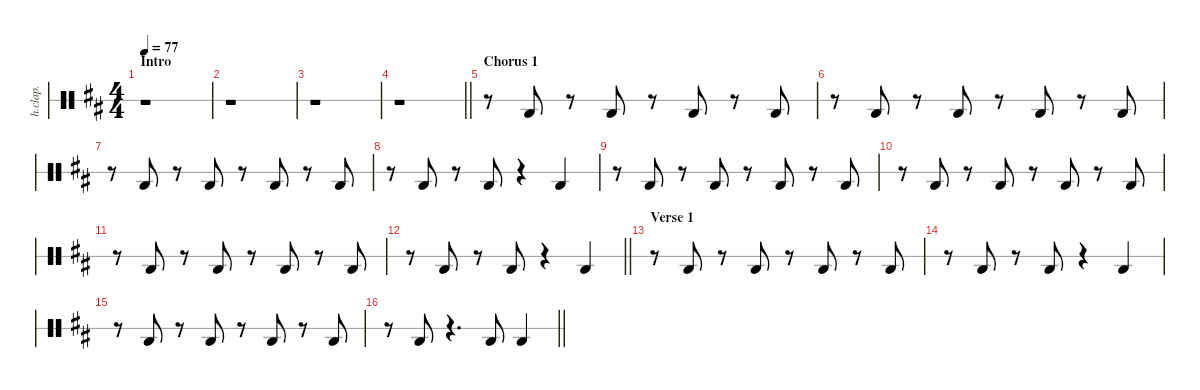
\defaultSystemsLayout 4
\hideDynamics
\bracketExtendMode nobrackets
\otherSystemsTrackNameOrientation horizontal
\track ("Hand Clap" "h.clap.") {defaultSystemsLayout 8 instrument percussion}
\staff {score 1}
\articulation defaults
\ts (4 4)
\beaming (8 4 4)
\section ("" "Intro")
\tempo 77
\clef neutral
\ks bminor
r.1{dy mf} |
r.1 |
r.1 |
\barLineRight lightlight
r.1 |
\section ("" "Chorus 1")
r.8 "Hand Clap (hit)"{acc forcenatural}.8{beam split} r.8{beam split} "Hand Clap (hit)"{acc forcenatural}.8{beam split} r.8{beam split} "Hand Clap (hit)"{acc forcenatural}.8{beam split} r.8{beam split} "Hand Clap (hit)"{acc forcenatural}.8 |
r.8 "Hand Clap (hit)"{acc forcenatural}.8{beam split} r.8{beam split} "Hand Clap (hit)"{acc forcenatural}.8{beam split} r.8{beam split} "Hand Clap (hit)"{acc forcenatural}.8{beam split} r.8{beam split} "Hand Clap (hit)"{acc forcenatural}.8 |
r.8 "Hand Clap (hit)"{acc forcenatural}.8{beam split} r.8{beam split} "Hand Clap (hit)"{acc forcenatural}.8{beam split} r.8{beam split} "Hand Clap (hit)"{acc forcenatural}.8{beam split} r.8{beam split} "Hand Clap (hit)"{acc forcenatural}.8 |
r.8 "Hand Clap (hit)"{acc forcenatural}.8{beam split} r.8{beam split} "Hand Clap (hit)"{acc forcenatural}.8{beam split} r.4{beam split} "Hand Clap (hit)"{acc forcenatural}.4 |
r.8 "Hand Clap (hit)"{acc forcenatural}.8{beam split} r.8{beam split} "Hand Clap (hit)"{acc forcenatural}.8{beam split} r.8{beam split} "Hand Clap (hit)"{acc forcenatural}.8{beam split} r.8{beam split} "Hand Clap (hit)"{acc forcenatural}.8 |
r.8 "Hand Clap (hit)"{acc forcenatural}.8{beam split} r.8{beam split} "Hand Clap (hit)"{acc forcenatural}.8{beam split} r.8{beam split} "Hand Clap (hit)"{acc forcenatural}.8{beam split} r.8{beam split} "Hand Clap (hit)"{acc forcenatural}.8 |
r.8 "Hand Clap (hit)"{acc forcenatural}.8{beam split} r.8{beam split} "Hand Clap (hit)"{acc forcenatural}.8{beam split} r.8{beam split} "Hand Clap (hit)"{acc forcenatural}.8{beam split} r.8{beam split} "Hand Clap (hit)"{acc forcenatural}.8 |
\barLineRight lightlight
r.8 "Hand Clap (hit)"{acc forcenatural}.8{beam split} r.8{beam split} "Hand Clap (hit)"{acc forcenatural}.8{beam split} r.4{beam split} "Hand Clap (hit)"{acc forcenatural}.4 |
\section ("" "Verse 1")
r.8 "Hand Clap (hit)"{acc forcenatural}.8{beam split} r.8{beam split} "Hand Clap (hit)"{acc forcenatural}.8{beam split} r.8{beam split} "Hand Clap (hit)"{acc forcenatural}.8{beam split} r.8{beam split} "Hand Clap (hit)"{acc forcenatural}.8 |
r.8 "Hand Clap (hit)"{acc forcenatural}.8{beam split} r.8{beam split} "Hand Clap (hit)"{acc forcenatural}.8{beam split} r.4{beam split} "Hand Clap (hit)"{acc forcenatural}.4 |
r.8 "Hand Clap (hit)"{acc forcenatural}.8{beam split} r.8{beam split} "Hand Clap (hit)"{acc forcenatural}.8{beam split} r.8{beam split} "Hand Clap (hit)"{acc forcenatural}.8{beam split} r.8{beam split} "Hand Clap (hit)"{acc forcenatural}.8 |
\barLineRight lightlight
r.8 "Hand Clap (hit)"{acc forcenatural}.8{beam split} r.4{d beam split} "Hand Clap (hit)"{acc forcenatural}.8 "Hand Clap (hit)"{acc forcenatural}.4
